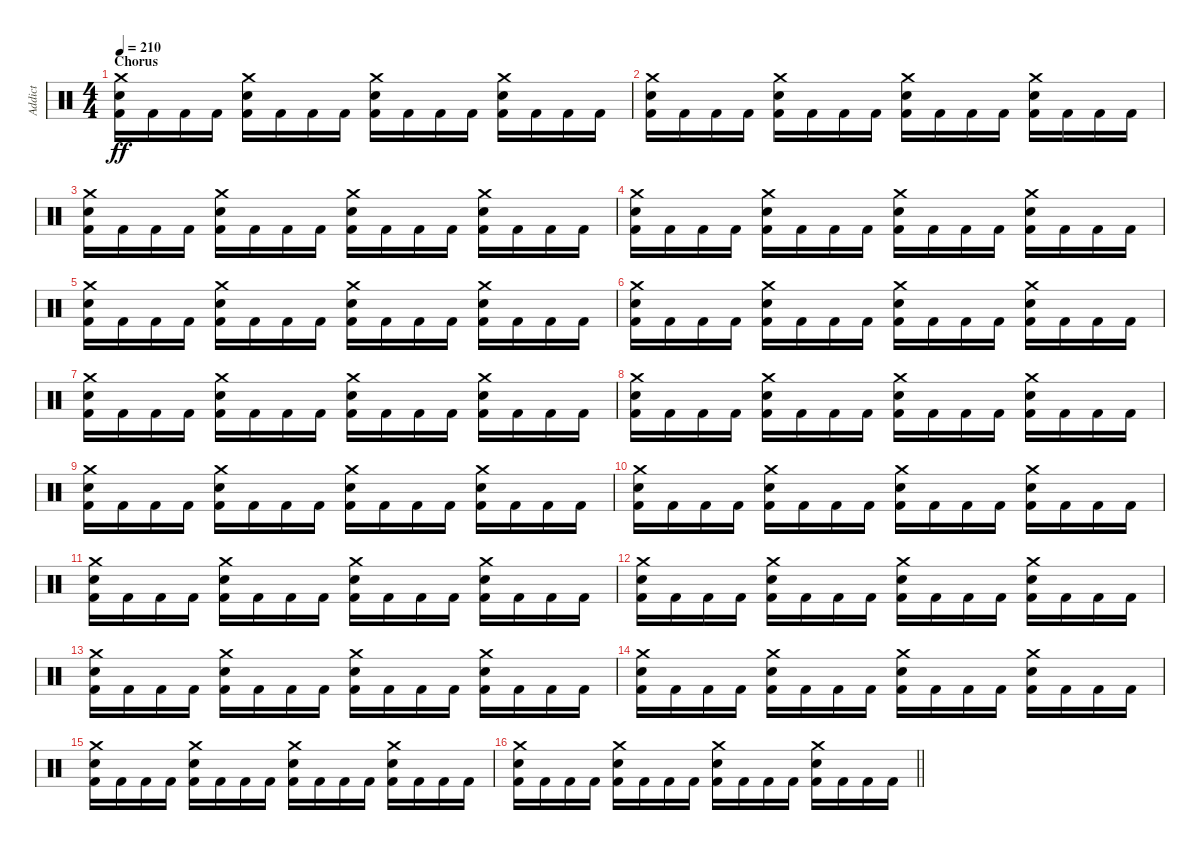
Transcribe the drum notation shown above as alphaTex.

\track ("Addict" "Addict") {instrument percussion}
\staff {score}
\articulation defaults
\ts (4 4)
\section ("" "Chorus")
\tempo 210
\clef neutral
\ks c
("Kick (hit) 2" "Snare (hit) 2" "Crash medium (hit)").16{dy ff} "Kick (hit) 2".16 "Kick (hit) 2".16 "Kick (hit) 2".16 ("Kick (hit) 2" "Snare (hit) 2" "Crash medium (hit)").16 "Kick (hit) 2".16 "Kick (hit) 2".16 "Kick (hit) 2".16 ("Kick (hit) 2" "Snare (hit) 2" "Crash medium (hit)").16 "Kick (hit) 2".16 "Kick (hit) 2".16 "Kick (hit) 2".16 ("Kick (hit) 2" "Snare (hit) 2" "Crash medium (hit)").16 "Kick (hit) 2".16 "Kick (hit) 2".16 "Kick (hit) 2".16 |
("Kick (hit) 2" "Snare (hit) 2" "Crash medium (hit)").16 "Kick (hit) 2".16 "Kick (hit) 2".16 "Kick (hit) 2".16 ("Kick (hit) 2" "Snare (hit) 2" "Crash medium (hit)").16 "Kick (hit) 2".16 "Kick (hit) 2".16 "Kick (hit) 2".16 ("Kick (hit) 2" "Snare (hit) 2" "Crash medium (hit)").16 "Kick (hit) 2".16 "Kick (hit) 2".16 "Kick (hit) 2".16 ("Kick (hit) 2" "Snare (hit) 2" "Crash medium (hit)").16 "Kick (hit) 2".16 "Kick (hit) 2".16 "Kick (hit) 2".16 |
("Kick (hit) 2" "Snare (hit) 2" "Crash medium (hit)").16 "Kick (hit) 2".16 "Kick (hit) 2".16 "Kick (hit) 2".16 ("Kick (hit) 2" "Snare (hit) 2" "Crash medium (hit)").16 "Kick (hit) 2".16 "Kick (hit) 2".16 "Kick (hit) 2".16 ("Kick (hit) 2" "Snare (hit) 2" "Crash medium (hit)").16 "Kick (hit) 2".16 "Kick (hit) 2".16 "Kick (hit) 2".16 ("Kick (hit) 2" "Snare (hit) 2" "Crash medium (hit)").16 "Kick (hit) 2".16 "Kick (hit) 2".16 "Kick (hit) 2".16 |
("Kick (hit) 2" "Snare (hit) 2" "Crash medium (hit)").16 "Kick (hit) 2".16 "Kick (hit) 2".16 "Kick (hit) 2".16 ("Kick (hit) 2" "Snare (hit) 2" "Crash medium (hit)").16 "Kick (hit) 2".16 "Kick (hit) 2".16 "Kick (hit) 2".16 ("Kick (hit) 2" "Snare (hit) 2" "Crash medium (hit)").16 "Kick (hit) 2".16 "Kick (hit) 2".16 "Kick (hit) 2".16 ("Kick (hit) 2" "Snare (hit) 2" "Crash medium (hit)").16 "Kick (hit) 2".16 "Kick (hit) 2".16 "Kick (hit) 2".16 |
("Kick (hit) 2" "Snare (hit) 2" "Crash medium (hit)").16 "Kick (hit) 2".16 "Kick (hit) 2".16 "Kick (hit) 2".16 ("Kick (hit) 2" "Snare (hit) 2" "Crash medium (hit)").16 "Kick (hit) 2".16 "Kick (hit) 2".16 "Kick (hit) 2".16 ("Kick (hit) 2" "Snare (hit) 2" "Crash medium (hit)").16 "Kick (hit) 2".16 "Kick (hit) 2".16 "Kick (hit) 2".16 ("Kick (hit) 2" "Snare (hit) 2" "Crash medium (hit)").16 "Kick (hit) 2".16 "Kick (hit) 2".16 "Kick (hit) 2".16 |
("Kick (hit) 2" "Snare (hit) 2" "Crash medium (hit)").16 "Kick (hit) 2".16 "Kick (hit) 2".16 "Kick (hit) 2".16 ("Kick (hit) 2" "Snare (hit) 2" "Crash medium (hit)").16 "Kick (hit) 2".16 "Kick (hit) 2".16 "Kick (hit) 2".16 ("Kick (hit) 2" "Snare (hit) 2" "Crash medium (hit)").16 "Kick (hit) 2".16 "Kick (hit) 2".16 "Kick (hit) 2".16 ("Kick (hit) 2" "Snare (hit) 2" "Crash medium (hit)").16 "Kick (hit) 2".16 "Kick (hit) 2".16 "Kick (hit) 2".16 |
("Kick (hit) 2" "Snare (hit) 2" "Crash medium (hit)").16 "Kick (hit) 2".16 "Kick (hit) 2".16 "Kick (hit) 2".16 ("Kick (hit) 2" "Snare (hit) 2" "Crash medium (hit)").16 "Kick (hit) 2".16 "Kick (hit) 2".16 "Kick (hit) 2".16 ("Kick (hit) 2" "Snare (hit) 2" "Crash medium (hit)").16 "Kick (hit) 2".16 "Kick (hit) 2".16 "Kick (hit) 2".16 ("Kick (hit) 2" "Snare (hit) 2" "Crash medium (hit)").16 "Kick (hit) 2".16 "Kick (hit) 2".16 "Kick (hit) 2".16 |
("Kick (hit) 2" "Snare (hit) 2" "Crash medium (hit)").16 "Kick (hit) 2".16 "Kick (hit) 2".16 "Kick (hit) 2".16 ("Kick (hit) 2" "Snare (hit) 2" "Crash medium (hit)").16 "Kick (hit) 2".16 "Kick (hit) 2".16 "Kick (hit) 2".16 ("Kick (hit) 2" "Snare (hit) 2" "Crash medium (hit)").16 "Kick (hit) 2".16 "Kick (hit) 2".16 "Kick (hit) 2".16 ("Kick (hit) 2" "Snare (hit) 2" "Crash medium (hit)").16 "Kick (hit) 2".16 "Kick (hit) 2".16 "Kick (hit) 2".16 |
("Kick (hit) 2" "Snare (hit) 2" "Crash medium (hit)").16 "Kick (hit) 2".16 "Kick (hit) 2".16 "Kick (hit) 2".16 ("Kick (hit) 2" "Snare (hit) 2" "Crash medium (hit)").16 "Kick (hit) 2".16 "Kick (hit) 2".16 "Kick (hit) 2".16 ("Kick (hit) 2" "Snare (hit) 2" "Crash medium (hit)").16 "Kick (hit) 2".16 "Kick (hit) 2".16 "Kick (hit) 2".16 ("Kick (hit) 2" "Snare (hit) 2" "Crash medium (hit)").16 "Kick (hit) 2".16 "Kick (hit) 2".16 "Kick (hit) 2".16 |
("Kick (hit) 2" "Snare (hit) 2" "Crash medium (hit)").16 "Kick (hit) 2".16 "Kick (hit) 2".16 "Kick (hit) 2".16 ("Kick (hit) 2" "Snare (hit) 2" "Crash medium (hit)").16 "Kick (hit) 2".16 "Kick (hit) 2".16 "Kick (hit) 2".16 ("Kick (hit) 2" "Snare (hit) 2" "Crash medium (hit)").16 "Kick (hit) 2".16 "Kick (hit) 2".16 "Kick (hit) 2".16 ("Kick (hit) 2" "Snare (hit) 2" "Crash medium (hit)").16 "Kick (hit) 2".16 "Kick (hit) 2".16 "Kick (hit) 2".16 |
("Kick (hit) 2" "Snare (hit) 2" "Crash medium (hit)").16 "Kick (hit) 2".16 "Kick (hit) 2".16 "Kick (hit) 2".16 ("Kick (hit) 2" "Snare (hit) 2" "Crash medium (hit)").16 "Kick (hit) 2".16 "Kick (hit) 2".16 "Kick (hit) 2".16 ("Kick (hit) 2" "Snare (hit) 2" "Crash medium (hit)").16 "Kick (hit) 2".16 "Kick (hit) 2".16 "Kick (hit) 2".16 ("Kick (hit) 2" "Snare (hit) 2" "Crash medium (hit)").16 "Kick (hit) 2".16 "Kick (hit) 2".16 "Kick (hit) 2".16 |
("Kick (hit) 2" "Snare (hit) 2" "Crash medium (hit)").16 "Kick (hit) 2".16 "Kick (hit) 2".16 "Kick (hit) 2".16 ("Kick (hit) 2" "Snare (hit) 2" "Crash medium (hit)").16 "Kick (hit) 2".16 "Kick (hit) 2".16 "Kick (hit) 2".16 ("Kick (hit) 2" "Snare (hit) 2" "Crash medium (hit)").16 "Kick (hit) 2".16 "Kick (hit) 2".16 "Kick (hit) 2".16 ("Kick (hit) 2" "Snare (hit) 2" "Crash medium (hit)").16 "Kick (hit) 2".16 "Kick (hit) 2".16 "Kick (hit) 2".16 |
("Kick (hit) 2" "Snare (hit) 2" "Crash medium (hit)").16 "Kick (hit) 2".16 "Kick (hit) 2".16 "Kick (hit) 2".16 ("Kick (hit) 2" "Snare (hit) 2" "Crash medium (hit)").16 "Kick (hit) 2".16 "Kick (hit) 2".16 "Kick (hit) 2".16 ("Kick (hit) 2" "Snare (hit) 2" "Crash medium (hit)").16 "Kick (hit) 2".16 "Kick (hit) 2".16 "Kick (hit) 2".16 ("Kick (hit) 2" "Snare (hit) 2" "Crash medium (hit)").16 "Kick (hit) 2".16 "Kick (hit) 2".16 "Kick (hit) 2".16 |
("Kick (hit) 2" "Snare (hit) 2" "Crash medium (hit)").16 "Kick (hit) 2".16 "Kick (hit) 2".16 "Kick (hit) 2".16 ("Kick (hit) 2" "Snare (hit) 2" "Crash medium (hit)").16 "Kick (hit) 2".16 "Kick (hit) 2".16 "Kick (hit) 2".16 ("Kick (hit) 2" "Snare (hit) 2" "Crash medium (hit)").16 "Kick (hit) 2".16 "Kick (hit) 2".16 "Kick (hit) 2".16 ("Kick (hit) 2" "Snare (hit) 2" "Crash medium (hit)").16 "Kick (hit) 2".16 "Kick (hit) 2".16 "Kick (hit) 2".16 |
("Kick (hit) 2" "Snare (hit) 2" "Crash medium (hit)").16 "Kick (hit) 2".16 "Kick (hit) 2".16 "Kick (hit) 2".16 ("Kick (hit) 2" "Snare (hit) 2" "Crash medium (hit)").16 "Kick (hit) 2".16 "Kick (hit) 2".16 "Kick (hit) 2".16 ("Kick (hit) 2" "Snare (hit) 2" "Crash medium (hit)").16 "Kick (hit) 2".16 "Kick (hit) 2".16 "Kick (hit) 2".16 ("Kick (hit) 2" "Snare (hit) 2" "Crash medium (hit)").16 "Kick (hit) 2".16 "Kick (hit) 2".16 "Kick (hit) 2".16 |
\barLineRight lightlight
("Kick (hit) 2" "Snare (hit) 2" "Crash medium (hit)").16 "Kick (hit) 2".16 "Kick (hit) 2".16 "Kick (hit) 2".16 ("Kick (hit) 2" "Snare (hit) 2" "Crash medium (hit)").16 "Kick (hit) 2".16 "Kick (hit) 2".16 "Kick (hit) 2".16 ("Kick (hit) 2" "Snare (hit) 2" "Crash medium (hit)").16 "Kick (hit) 2".16 "Kick (hit) 2".16 "Kick (hit) 2".16 ("Kick (hit) 2" "Snare (hit) 2" "Crash medium (hit)").16 "Kick (hit) 2".16 "Kick (hit) 2".16 "Kick (hit) 2".16
